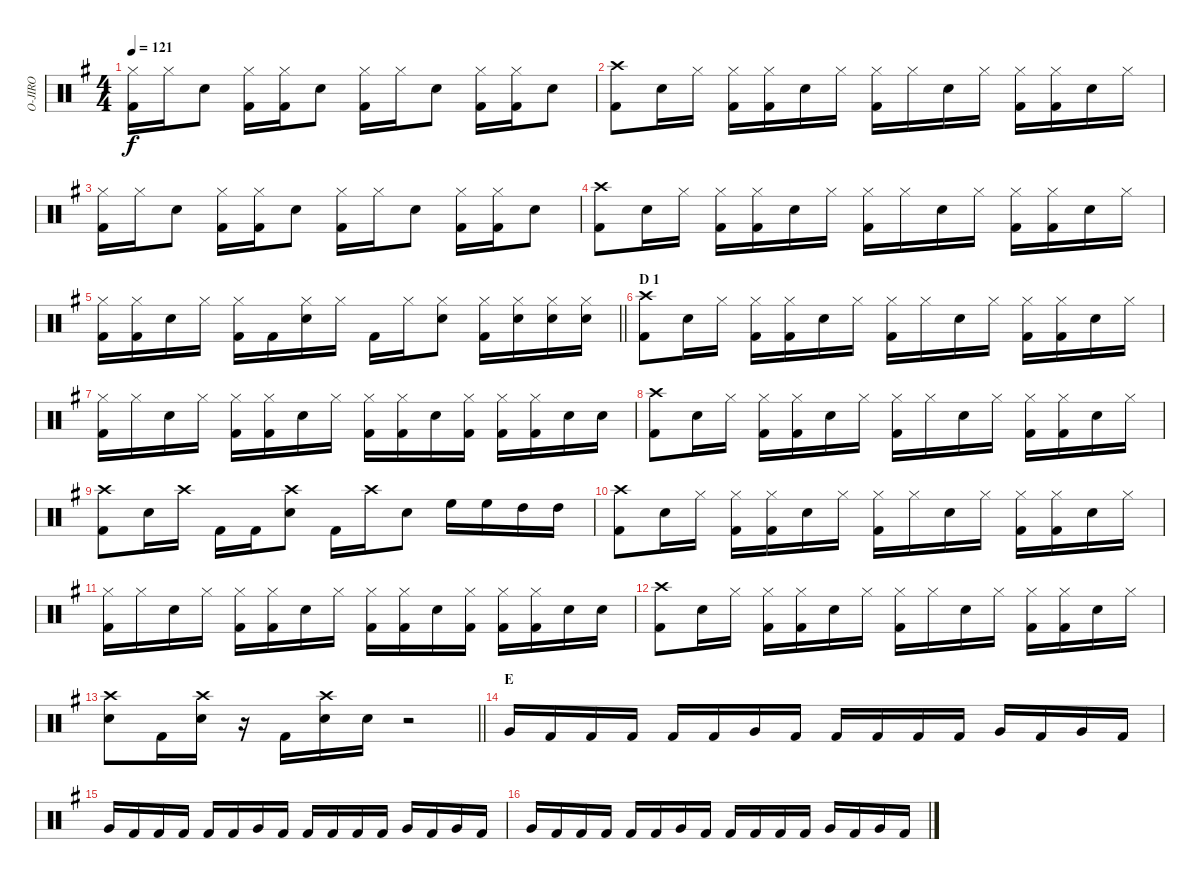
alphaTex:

\track ("O-JIRO" "O-JIRO") {instrument percussion}
\staff {score}
\articulation defaults
\ts (4 4)
\tempo 121
\clef neutral
\ks g
("Hi-Hat (closed)" "Kick (hit) 2").16{dy f} "Hi-Hat (closed)".16 "Snare (hit) 2".8 ("Hi-Hat (closed)" "Kick (hit) 2").16 ("Hi-Hat (closed)" "Kick (hit) 2").16 "Snare (hit) 2".8 ("Hi-Hat (closed)" "Kick (hit) 2").16 "Hi-Hat (closed)".16 "Snare (hit) 2".8 ("Hi-Hat (closed)" "Kick (hit) 2").16 ("Hi-Hat (closed)" "Kick (hit) 2").16 "Snare (hit) 2".8 |
("Crash high (hit)" "Kick (hit) 2").8 "Snare (hit) 2".16 "Hi-Hat (closed)".16 ("Hi-Hat (closed)" "Kick (hit) 2").16 ("Hi-Hat (closed)" "Kick (hit) 2").16 "Snare (hit) 2".16 "Hi-Hat (closed)".16 ("Hi-Hat (closed)" "Kick (hit) 2").16 "Hi-Hat (closed)".16 "Snare (hit) 2".16 "Hi-Hat (closed)".16 ("Hi-Hat (closed)" "Kick (hit) 2").16 ("Hi-Hat (closed)" "Kick (hit) 2").16 "Snare (hit) 2".16 "Hi-Hat (closed)".16 |
("Hi-Hat (closed)" "Kick (hit) 2").16 "Hi-Hat (closed)".16 "Snare (hit) 2".8 ("Hi-Hat (closed)" "Kick (hit) 2").16 ("Hi-Hat (closed)" "Kick (hit) 2").16 "Snare (hit) 2".8 ("Hi-Hat (closed)" "Kick (hit) 2").16 "Hi-Hat (closed)".16 "Snare (hit) 2".8 ("Hi-Hat (closed)" "Kick (hit) 2").16 ("Hi-Hat (closed)" "Kick (hit) 2").16 "Snare (hit) 2".8 |
("Crash high (hit)" "Kick (hit) 2").8 "Snare (hit) 2".16 "Hi-Hat (closed)".16 ("Hi-Hat (closed)" "Kick (hit) 2").16 ("Hi-Hat (closed)" "Kick (hit) 2").16 "Snare (hit) 2".16 "Hi-Hat (closed)".16 ("Hi-Hat (closed)" "Kick (hit) 2").16 "Hi-Hat (closed)".16 "Snare (hit) 2".16 "Hi-Hat (closed)".16 ("Hi-Hat (closed)" "Kick (hit) 2").16 ("Hi-Hat (closed)" "Kick (hit) 2").16 "Snare (hit) 2".16 "Hi-Hat (closed)".16 |
\barLineRight lightlight
("Hi-Hat (closed)" "Kick (hit) 2").16 ("Hi-Hat (closed)" "Kick (hit) 2").16 "Snare (hit) 2".16 "Hi-Hat (closed)".16 ("Hi-Hat (closed)" "Kick (hit) 2").16 "Kick (hit) 2".16 ("Hi-Hat (closed)" "Snare (hit) 2").16 "Hi-Hat (closed)".16 "Kick (hit) 2".16 "Hi-Hat (closed)".16 ("Hi-Hat (closed)" "Snare (hit) 2").8 ("Hi-Hat (closed)" "Kick (hit) 2").16 ("Hi-Hat (closed)" "Snare (hit) 2").16 ("Hi-Hat (closed)" "Snare (hit) 2").16 ("Hi-Hat (closed)" "Snare (hit) 2").16 |
\section ("" "D 1")
("Crash high (hit)" "Kick (hit) 2").8 "Snare (hit) 2".16 "Hi-Hat (closed)".16 ("Hi-Hat (closed)" "Kick (hit) 2").16 ("Hi-Hat (closed)" "Kick (hit) 2").16 "Snare (hit) 2".16 "Hi-Hat (closed)".16 ("Hi-Hat (closed)" "Kick (hit) 2").16 "Hi-Hat (closed)".16 "Snare (hit) 2".16 "Hi-Hat (closed)".16 ("Hi-Hat (closed)" "Kick (hit) 2").16 ("Hi-Hat (closed)" "Kick (hit) 2").16 "Snare (hit) 2".16 "Hi-Hat (closed)".16 |
("Hi-Hat (closed)" "Kick (hit) 2").16 "Hi-Hat (closed)".16 "Snare (hit) 2".16 "Hi-Hat (closed)".16 ("Hi-Hat (closed)" "Kick (hit) 2").16 ("Hi-Hat (closed)" "Kick (hit) 2").16 "Snare (hit) 2".16 "Hi-Hat (closed)".16 ("Hi-Hat (closed)" "Kick (hit) 2").16 ("Hi-Hat (closed)" "Kick (hit) 2").16 "Snare (hit) 2".16 ("Hi-Hat (closed)" "Kick (hit) 2").16 ("Hi-Hat (closed)" "Kick (hit) 2").16 ("Hi-Hat (closed)" "Kick (hit) 2").16 "Snare (hit) 2".16 "Snare (hit) 2".16 |
("Crash high (hit)" "Kick (hit) 2").8 "Snare (hit) 2".16 "Hi-Hat (closed)".16 ("Hi-Hat (closed)" "Kick (hit) 2").16 ("Hi-Hat (closed)" "Kick (hit) 2").16 "Snare (hit) 2".16 "Hi-Hat (closed)".16 ("Hi-Hat (closed)" "Kick (hit) 2").16 "Hi-Hat (closed)".16 "Snare (hit) 2".16 "Hi-Hat (closed)".16 ("Hi-Hat (closed)" "Kick (hit) 2").16 ("Hi-Hat (closed)" "Kick (hit) 2").16 "Snare (hit) 2".16 "Hi-Hat (closed)".16 |
("Crash high (hit)" "Kick (hit) 2").8 "Snare (hit) 2".16 "Crash high (hit)".16 "Kick (hit) 2".16 "Kick (hit) 2".16 ("Crash high (hit)" "Snare (hit) 2").8 "Kick (hit) 2".16 "Crash high (hit)".16 "Snare (hit) 2".8 "High Floor Tom (hit)".16 "High Floor Tom (hit)".16 "High Tom (hit)".16 "High Tom (hit)".16 |
("Crash high (hit)" "Kick (hit) 2").8 "Snare (hit) 2".16 "Hi-Hat (closed)".16 ("Hi-Hat (closed)" "Kick (hit) 2").16 ("Hi-Hat (closed)" "Kick (hit) 2").16 "Snare (hit) 2".16 "Hi-Hat (closed)".16 ("Hi-Hat (closed)" "Kick (hit) 2").16 "Hi-Hat (closed)".16 "Snare (hit) 2".16 "Hi-Hat (closed)".16 ("Hi-Hat (closed)" "Kick (hit) 2").16 ("Hi-Hat (closed)" "Kick (hit) 2").16 "Snare (hit) 2".16 "Hi-Hat (closed)".16 |
("Hi-Hat (closed)" "Kick (hit) 2").16 "Hi-Hat (closed)".16 "Snare (hit) 2".16 "Hi-Hat (closed)".16 ("Hi-Hat (closed)" "Kick (hit) 2").16 ("Hi-Hat (closed)" "Kick (hit) 2").16 "Snare (hit) 2".16 "Hi-Hat (closed)".16 ("Hi-Hat (closed)" "Kick (hit) 2").16 ("Hi-Hat (closed)" "Kick (hit) 2").16 "Snare (hit) 2".16 ("Hi-Hat (closed)" "Kick (hit) 2").16 ("Hi-Hat (closed)" "Kick (hit) 2").16 ("Hi-Hat (closed)" "Kick (hit) 2").16 "Snare (hit) 2".16 "Snare (hit) 2".16 |
("Crash high (hit)" "Kick (hit) 2").8 "Snare (hit) 2".16 "Hi-Hat (closed)".16 ("Hi-Hat (closed)" "Kick (hit) 2").16 ("Hi-Hat (closed)" "Kick (hit) 2").16 "Snare (hit) 2".16 "Hi-Hat (closed)".16 ("Hi-Hat (closed)" "Kick (hit) 2").16 "Hi-Hat (closed)".16 "Snare (hit) 2".16 "Hi-Hat (closed)".16 ("Hi-Hat (closed)" "Kick (hit) 2").16 ("Hi-Hat (closed)" "Kick (hit) 2").16 "Snare (hit) 2".16 "Hi-Hat (closed)".16 |
\barLineRight lightlight
("Crash high (hit)" "Snare (hit) 2").8 "Kick (hit) 2".16 ("Crash high (hit)" "Snare (hit) 2").16 r.16 "Kick (hit) 2".16 ("Crash high (hit)" "Snare (hit) 2").16 "Snare (hit) 2".16 r.2 |
\section ("" "E")
"Very Low Tom (hit)".16 "Kick (hit) 2".16 "Kick (hit) 2".16 "Kick (hit) 2".16 "Kick (hit) 2".16 "Kick (hit) 2".16 "Very Low Tom (hit)".16 "Kick (hit) 2".16 "Kick (hit) 2".16 "Kick (hit) 2".16 "Kick (hit) 2".16 "Kick (hit) 2".16 "Very Low Tom (hit)".16 "Kick (hit) 2".16 "Very Low Tom (hit)".16 "Kick (hit) 2".16 |
"Very Low Tom (hit)".16 "Kick (hit) 2".16 "Kick (hit) 2".16 "Kick (hit) 2".16 "Kick (hit) 2".16 "Kick (hit) 2".16 "Very Low Tom (hit)".16 "Kick (hit) 2".16 "Kick (hit) 2".16 "Kick (hit) 2".16 "Kick (hit) 2".16 "Kick (hit) 2".16 "Very Low Tom (hit)".16 "Kick (hit) 2".16 "Very Low Tom (hit)".16 "Kick (hit) 2".16 |
"Very Low Tom (hit)".16 "Kick (hit) 2".16 "Kick (hit) 2".16 "Kick (hit) 2".16 "Kick (hit) 2".16 "Kick (hit) 2".16 "Very Low Tom (hit)".16 "Kick (hit) 2".16 "Kick (hit) 2".16 "Kick (hit) 2".16 "Kick (hit) 2".16 "Kick (hit) 2".16 "Very Low Tom (hit)".16 "Kick (hit) 2".16 "Very Low Tom (hit)".16 "Kick (hit) 2".16
